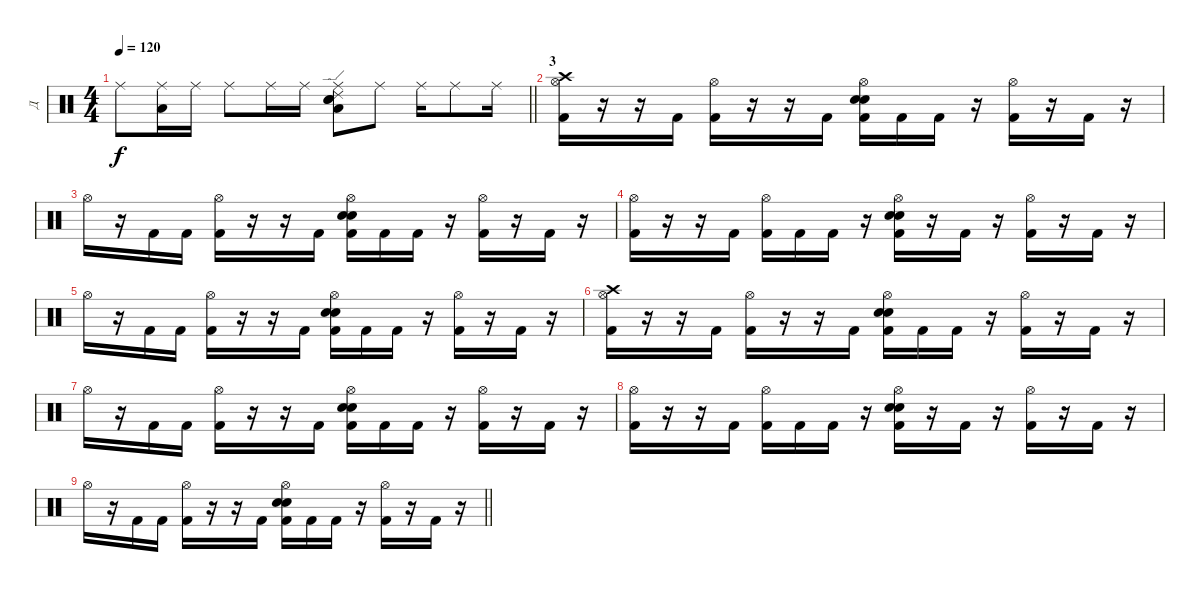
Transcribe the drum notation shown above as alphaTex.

\track ("Д" "Д") {instrument percussion}
\staff {score}
\articulation defaults
\ts (4 4)
\tempo 120
\clef neutral
\barLineRight lightlight
\ks c "Ride (middle)".8{dy f}
("Low Tom (hit)" "Ride (middle)").16 "Ride (middle)".16 "Ride (middle)".8 "Ride (middle)".16 "Ride (middle)".16 ("Ride (edge) 2" "Electric Snare (hit)" "Electric Snare (hit)" "Low Floor Tom (hit)" "Ride (middle)").8 "Ride (middle)".8 "Ride (middle)".16 "Ride (middle)".8 "Ride (middle)".16 |
\section ("" "3")
("Crash high (hit)" "Kick (hit) 2" "Hi-Hat (open)").16 r.16 r.16 "Kick (hit) 2".16 ("Kick (hit) 2" "Hi-Hat (open)").16 r.16 r.16 "Kick (hit) 2".16 ("Electric Snare (hit)" "Electric Snare (hit)" "Kick (hit) 2" "Hi-Hat (open)").16 "Kick (hit) 2".16 "Kick (hit) 2".16 r.16 ("Kick (hit) 2" "Hi-Hat (open)").16 r.16 "Kick (hit) 2".16 r.16 |
"Hi-Hat (open)".16 r.16 "Kick (hit) 2".16 "Kick (hit) 2".16 ("Kick (hit) 2" "Hi-Hat (open)").16 r.16 r.16 "Kick (hit) 2".16 ("Electric Snare (hit)" "Electric Snare (hit)" "Kick (hit) 2" "Hi-Hat (open)").16 "Kick (hit) 2".16 "Kick (hit) 2".16 r.16 ("Kick (hit) 2" "Hi-Hat (open)").16 r.16 "Kick (hit) 2".16 r.16 |
("Kick (hit) 2" "Hi-Hat (open)").16 r.16 r.16 "Kick (hit) 2".16 ("Kick (hit) 2" "Hi-Hat (open)").16 "Kick (hit) 2".16 "Kick (hit) 2".16 r.16 ("Electric Snare (hit)" "Electric Snare (hit)" "Kick (hit) 2" "Hi-Hat (open)").16 r.16 "Kick (hit) 2".16 r.16 ("Kick (hit) 2" "Hi-Hat (open)").16 r.16 "Kick (hit) 2".16 r.16 |
"Hi-Hat (open)".16 r.16 "Kick (hit) 2".16 "Kick (hit) 2".16 ("Kick (hit) 2" "Hi-Hat (open)").16 r.16 r.16 "Kick (hit) 2".16 ("Electric Snare (hit)" "Electric Snare (hit)" "Kick (hit) 2" "Hi-Hat (open)").16 "Kick (hit) 2".16 "Kick (hit) 2".16 r.16 ("Kick (hit) 2" "Hi-Hat (open)").16 r.16 "Kick (hit) 2".16 r.16 |
("Crash high (hit)" "Kick (hit) 2" "Hi-Hat (open)").16 r.16 r.16 "Kick (hit) 2".16 ("Kick (hit) 2" "Hi-Hat (open)").16 r.16 r.16 "Kick (hit) 2".16 ("Electric Snare (hit)" "Electric Snare (hit)" "Kick (hit) 2" "Hi-Hat (open)").16 "Kick (hit) 2".16 "Kick (hit) 2".16 r.16 ("Kick (hit) 2" "Hi-Hat (open)").16 r.16 "Kick (hit) 2".16 r.16 |
"Hi-Hat (open)".16 r.16 "Kick (hit) 2".16 "Kick (hit) 2".16 ("Kick (hit) 2" "Hi-Hat (open)").16 r.16 r.16 "Kick (hit) 2".16 ("Electric Snare (hit)" "Electric Snare (hit)" "Kick (hit) 2" "Hi-Hat (open)").16 "Kick (hit) 2".16 "Kick (hit) 2".16 r.16 ("Kick (hit) 2" "Hi-Hat (open)").16 r.16 "Kick (hit) 2".16 r.16 |
("Kick (hit) 2" "Hi-Hat (open)").16 r.16 r.16 "Kick (hit) 2".16 ("Kick (hit) 2" "Hi-Hat (open)").16 "Kick (hit) 2".16 "Kick (hit) 2".16 r.16 ("Electric Snare (hit)" "Electric Snare (hit)" "Kick (hit) 2" "Hi-Hat (open)").16 r.16 "Kick (hit) 2".16 r.16 ("Kick (hit) 2" "Hi-Hat (open)").16 r.16 "Kick (hit) 2".16 r.16 |
\barLineRight lightlight "Hi-Hat (open)".16
r.16 "Kick (hit) 2".16 "Kick (hit) 2".16 ("Kick (hit) 2" "Hi-Hat (open)").16 r.16 r.16 "Kick (hit) 2".16 ("Electric Snare (hit)" "Electric Snare (hit)" "Kick (hit) 2" "Hi-Hat (open)").16 "Kick (hit) 2".16 "Kick (hit) 2".16 r.16 ("Kick (hit) 2" "Hi-Hat (open)").16 r.16 "Kick (hit) 2".16 r.16
